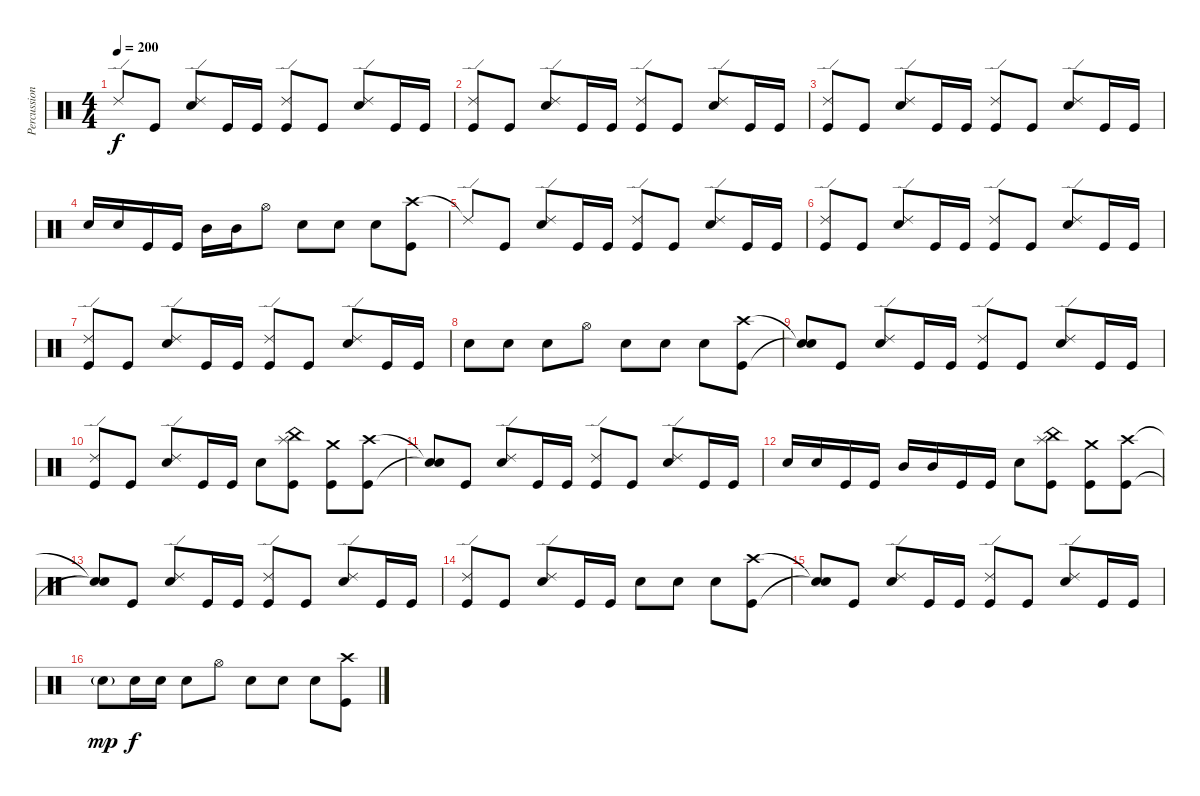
\track ("Percussioni" "Percussion") {instrument percussion}
\staff {score}
\articulation defaults
\ts (4 4)
\tempo 200
\clef neutral
\ks c "Ride (edge) 2"{t}.8{dy f} "Kick (hit)".8
("Ride (edge) 2" "Electric Snare (hit)").8 "Kick (hit)".16 "Kick (hit)".16 ("Ride (edge) 2" "Kick (hit)").8 "Kick (hit)".8 ("Ride (edge) 2" "Electric Snare (hit)").8 "Kick (hit)".16 "Kick (hit)".16 |
("Ride (edge) 2" "Kick (hit)").8 "Kick (hit)".8 ("Ride (edge) 2" "Electric Snare (hit)").8 "Kick (hit)".16 "Kick (hit)".16 ("Ride (edge) 2" "Kick (hit)").8 "Kick (hit)".8 ("Ride (edge) 2" "Electric Snare (hit)").8 "Kick (hit)".16 "Kick (hit)".16 |
("Ride (edge) 2" "Kick (hit)").8 "Kick (hit)".8 ("Ride (edge) 2" "Electric Snare (hit)").8 "Kick (hit)".16 "Kick (hit)".16 ("Ride (edge) 2" "Kick (hit)").8 "Kick (hit)".8 ("Ride (edge) 2" "Electric Snare (hit)").8 "Kick (hit)".16 "Kick (hit)".16 |
"Electric Snare (hit)".16 "Electric Snare (hit)".16 "Kick (hit)".16 "Kick (hit)".16 "Mid Tom (hit)".16 "Mid Tom (hit)".16 "Hi-Hat (open)".8 "Electric Snare (hit)".8 "Electric Snare (hit)".8 "Electric Snare (hit)".8 ("Crash high (hit)" "Kick (hit)").8 |
"Ride (edge) 2"{t}.8 "Kick (hit)".8 ("Ride (edge) 2" "Electric Snare (hit)").8 "Kick (hit)".16 "Kick (hit)".16 ("Ride (edge) 2" "Kick (hit)").8 "Kick (hit)".8 ("Ride (edge) 2" "Electric Snare (hit)").8 "Kick (hit)".16 "Kick (hit)".16 |
("Ride (edge) 2" "Kick (hit)").8 "Kick (hit)".8 ("Ride (edge) 2" "Electric Snare (hit)").8 "Kick (hit)".16 "Kick (hit)".16 ("Ride (edge) 2" "Kick (hit)").8 "Kick (hit)".8 ("Ride (edge) 2" "Electric Snare (hit)").8 "Kick (hit)".16 "Kick (hit)".16 |
("Ride (edge) 2" "Kick (hit)").8 "Kick (hit)".8 ("Ride (edge) 2" "Electric Snare (hit)").8 "Kick (hit)".16 "Kick (hit)".16 ("Ride (edge) 2" "Kick (hit)").8 "Kick (hit)".8 ("Ride (edge) 2" "Electric Snare (hit)").8 "Kick (hit)".16 "Kick (hit)".16 |
"Electric Snare (hit)".8 "Electric Snare (hit)".8 "Electric Snare (hit)".8 "Hi-Hat (open)".8 "Electric Snare (hit)".8 "Electric Snare (hit)".8 "Electric Snare (hit)".8 ("Crash high (hit)" "Kick (hit)").8 |
("Snare (hit)"{t} "Snare (hit)"{t}).8 "Kick (hit)".8 ("Ride (edge) 2" "Electric Snare (hit)").8 "Kick (hit)".16 "Kick (hit)".16 ("Ride (edge) 2" "Kick (hit)").8 "Kick (hit)".8 ("Ride (edge) 2" "Electric Snare (hit)").8 "Kick (hit)".16 "Kick (hit)".16 |
("Ride (edge) 2" "Kick (hit)").8 "Kick (hit)".8 ("Ride (edge) 2" "Electric Snare (hit)").8 "Kick (hit)".16 "Kick (hit)".16 "Electric Snare (hit)".8 ("Splash (hit)" "China (hit)" "Kick (hit)").8 ("Crash medium (hit)" "Kick (hit)").8 ("Crash high (hit)" "Kick (hit)").8 |
("Snare (hit)"{t} "Snare (hit)"{t}).8 "Kick (hit)".8 ("Ride (edge) 2" "Electric Snare (hit)").8 "Kick (hit)".16 "Kick (hit)".16 ("Ride (edge) 2" "Kick (hit)").8 "Kick (hit)".8 ("Ride (edge) 2" "Electric Snare (hit)").8 "Kick (hit)".16 "Kick (hit)".16 |
"Electric Snare (hit)".16 "Electric Snare (hit)".16 "Kick (hit)".16 "Kick (hit)".16 "Mid Tom (hit)".16 "Mid Tom (hit)".16 "Kick (hit)".16 "Kick (hit)".16 "Electric Snare (hit)".8 ("Splash (hit)" "China (hit)" "Kick (hit)").8 ("Crash medium (hit)" "Kick (hit)").8 ("Crash high (hit)" "Kick (hit)").8 |
("Snare (hit)"{t} "Snare (hit)"{t}).8 "Kick (hit)".8 ("Ride (edge) 2" "Electric Snare (hit)").8 "Kick (hit)".16 "Kick (hit)".16 ("Ride (edge) 2" "Kick (hit)").8 "Kick (hit)".8 ("Ride (edge) 2" "Electric Snare (hit)").8 "Kick (hit)".16 "Kick (hit)".16 |
("Ride (edge) 2" "Kick (hit)").8 "Kick (hit)".8 ("Ride (edge) 2" "Electric Snare (hit)").8 "Kick (hit)".16 "Kick (hit)".16 "Electric Snare (hit)".8 "Electric Snare (hit)".8 "Electric Snare (hit)".8 ("Crash high (hit)" "Kick (hit)").8 |
("Snare (hit)"{t} "Snare (hit)"{t}).8 "Kick (hit)".8 ("Ride (edge) 2" "Electric Snare (hit)").8 "Kick (hit)".16 "Kick (hit)".16 ("Ride (edge) 2" "Kick (hit)").8 "Kick (hit)".8 ("Ride (edge) 2" "Electric Snare (hit)").8 "Kick (hit)".16 "Kick (hit)".16 |
"Electric Snare (hit)"{g}.8{dy mp} "Electric Snare (hit)".16{dy f} "Electric Snare (hit)".16 "Electric Snare (hit)".8 "Hi-Hat (open)".8 "Electric Snare (hit)".8 "Electric Snare (hit)".8 "Electric Snare (hit)".8 ("Crash high (hit)" "Kick (hit)").8
